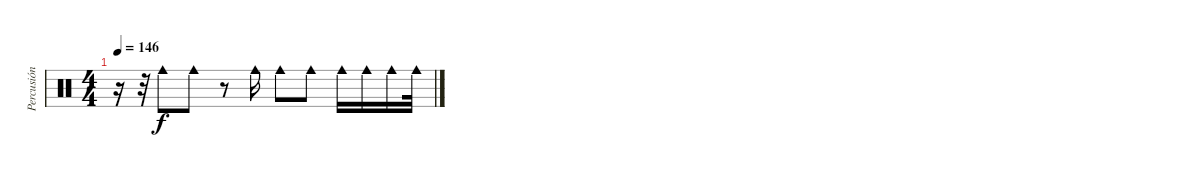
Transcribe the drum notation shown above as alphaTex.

\track ("Percusión" "Percusión") {instrument percussion}
\staff {score}
\articulation defaults
\ts (4 4)
\tempo 146
\clef neutral
\ks c
r.16{dy f} r.32 "Cowbell medium (hit)".8 "Cowbell medium (hit)".8 r.8 "Cowbell medium (hit)".16 "Cowbell medium (hit)".8 "Cowbell medium (hit)".8 "Cowbell medium (hit)".16 "Cowbell medium (hit)".16 "Cowbell medium (hit)".16 "Cowbell medium (hit)".32
